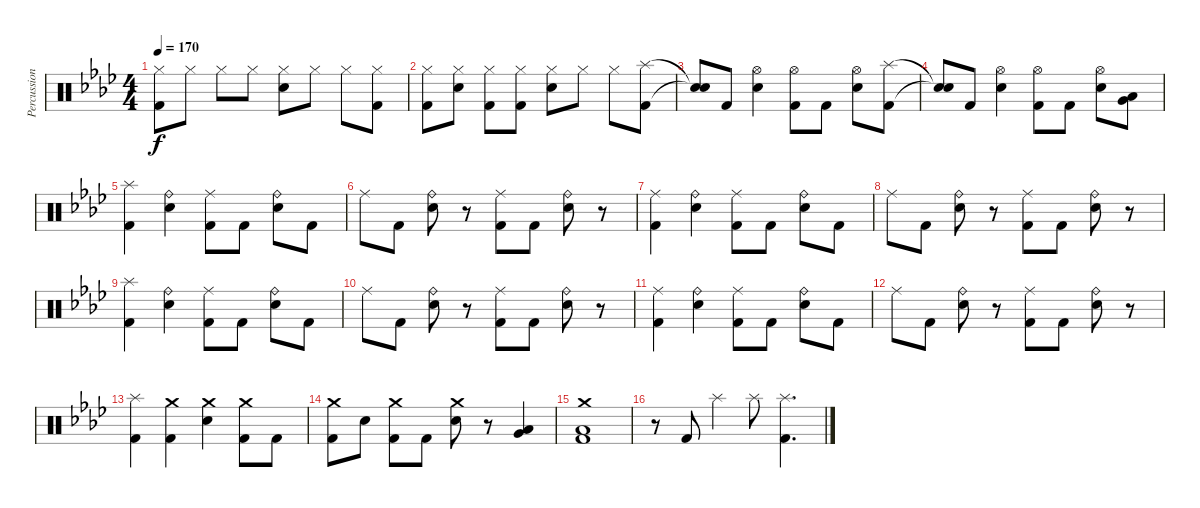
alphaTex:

\track ("Percussion" "Percussion") {instrument percussion}
\staff {score}
\articulation defaults
\ts (4 4)
\tempo 170
\clef neutral
\ks ab
("Hi-Hat (closed)" "Kick (hit) 2").8{dy f} "Hi-Hat (closed)".8 "Hi-Hat (closed)".8 "Hi-Hat (closed)".8 ("Hi-Hat (closed)" "Electric Snare (hit)").8 "Hi-Hat (closed)".8 "Hi-Hat (closed)".8 ("Hi-Hat (closed)" "Kick (hit) 2").8 |
("Hi-Hat (closed)" "Kick (hit) 2").8 ("Hi-Hat (closed)" "Electric Snare (hit)").8 ("Hi-Hat (closed)" "Kick (hit) 2").8 ("Hi-Hat (closed)" "Kick (hit) 2").8 ("Hi-Hat (closed)" "Electric Snare (hit)").8 "Hi-Hat (closed)".8 "Hi-Hat (closed)".8 ("Splash (hit)" "Kick (hit) 2").8 |
("Snare (hit)"{t} "Snare (hit)"{t}).8 "Kick (hit) 2".8 ("Hi-Hat (open)" "Electric Snare (hit)").4 ("Hi-Hat (open)" "Kick (hit) 2").8 "Kick (hit) 2".8 ("Hi-Hat (open)" "Electric Snare (hit)").8 ("Splash (hit)" "Kick (hit) 2").8 |
("Snare (hit)"{t} "Snare (hit)"{t}).8 "Kick (hit) 2".8 ("Hi-Hat (open)" "Electric Snare (hit)").4 ("Hi-Hat (open)" "Kick (hit) 2").8 "Kick (hit) 2".8 ("Hi-Hat (open)" "Electric Snare (hit)").8 ("Very Low Tom (hit)" "Low Floor Tom (hit)").8 |
("Splash (hit)" "Kick (hit) 2").4 ("Ride (bell)" "Electric Snare (hit)").4 ("Ride (middle)" "Kick (hit) 2").8 "Kick (hit) 2".8 ("Ride (bell)" "Electric Snare (hit)").8 "Kick (hit) 2".8 |
"Ride (middle)".8 "Kick (hit) 2".8 ("Ride (bell)" "Electric Snare (hit)").8 r.8 ("Ride (middle)" "Kick (hit) 2").8 "Kick (hit) 2".8 ("Ride (bell)" "Electric Snare (hit)").8 r.8 |
("Ride (middle)" "Kick (hit) 2").4 ("Ride (bell)" "Electric Snare (hit)").4 ("Ride (middle)" "Kick (hit) 2").8 "Kick (hit) 2".8 ("Ride (bell)" "Electric Snare (hit)").8 "Kick (hit) 2".8 |
"Ride (middle)".8 "Kick (hit) 2".8 ("Ride (bell)" "Electric Snare (hit)").8 r.8 ("Ride (middle)" "Kick (hit) 2").8 "Kick (hit) 2".8 ("Ride (bell)" "Electric Snare (hit)").8 r.8 |
("Splash (hit)" "Kick (hit) 2").4 ("Ride (bell)" "Electric Snare (hit)").4 ("Ride (middle)" "Kick (hit) 2").8 "Kick (hit) 2".8 ("Ride (bell)" "Electric Snare (hit)").8 "Kick (hit) 2".8 |
"Ride (middle)".8 "Kick (hit) 2".8 ("Ride (bell)" "Electric Snare (hit)").8 r.8 ("Ride (middle)" "Kick (hit) 2").8 "Kick (hit) 2".8 ("Ride (bell)" "Electric Snare (hit)").8 r.8 |
("Ride (middle)" "Kick (hit) 2").4 ("Ride (bell)" "Electric Snare (hit)").4 ("Ride (middle)" "Kick (hit) 2").8 "Kick (hit) 2".8 ("Ride (bell)" "Electric Snare (hit)").8 "Kick (hit) 2".8 |
"Ride (middle)".8 "Kick (hit) 2".8 ("Ride (bell)" "Electric Snare (hit)").8 r.8 ("Ride (middle)" "Kick (hit) 2").8 "Kick (hit) 2".8 ("Ride (bell)" "Electric Snare (hit)").8 r.8 |
("Splash (hit)" "Kick (hit) 2").4 ("Crash medium (hit)" "Kick (hit) 2").4 ("Crash medium (hit)" "Electric Snare (hit)").4 ("Crash medium (hit)" "Kick (hit) 2").8 "Kick (hit) 2".8 |
("Crash medium (hit)" "Kick (hit) 2").8 "Electric Snare (hit)".8 ("Crash medium (hit)" "Kick (hit) 2").8 "Kick (hit) 2".8 ("Crash medium (hit)" "Electric Snare (hit)").8 r.8 ("Very Low Tom (hit)" "Low Tom (hit)").4 |
("Crash medium (hit)" "Low Tom (hit)" "Kick (hit) 2").1 |
r.8 "Kick (hit) 2".8 "Splash (hit)".4 "Splash (hit)".8 ("Splash (hit)" "Kick (hit) 2").4{d}
